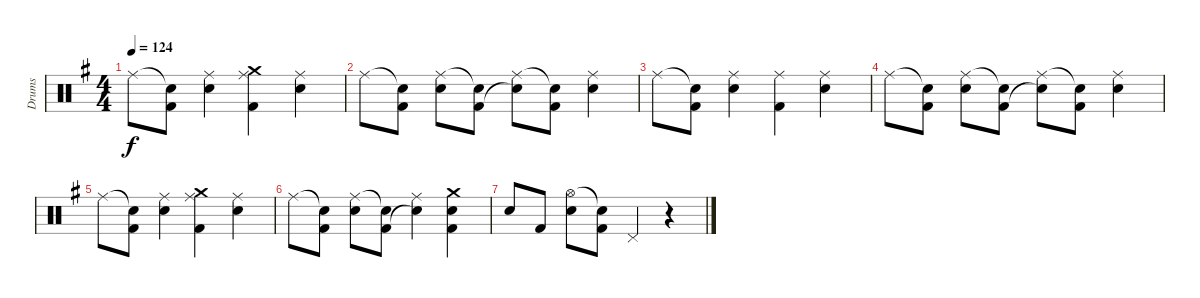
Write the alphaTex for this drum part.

\track ("Drums" "Drums") {instrument percussion}
\staff {score}
\articulation defaults
\ts (4 4)
\tempo 124
\clef neutral
\ks g "Ride (middle)".8{dy f}
("Snare (hit)"{t} "Kick (hit) 2").8 ("Ride (middle)" "Snare (hit) 2").4 ("Ride (middle)" "Crash medium (hit)" "Kick (hit) 2").4 ("Ride (middle)" "Snare (hit) 2").4 |
"Ride (middle)".8 ("Snare (hit)"{t} "Kick (hit) 2").8 ("Ride (middle)" "Snare (hit) 2").8 ("Snare (hit)"{t} "Kick (hit) 2").8 ("Ride (middle)" "Snare (hit)"{t}).8 ("Snare (hit)"{t} "Kick (hit) 2").8 ("Ride (middle)" "Snare (hit) 2").4 |
"Ride (middle)".8 ("Snare (hit)"{t} "Kick (hit) 2").8 ("Ride (middle)" "Snare (hit) 2").4 ("Ride (middle)" "Kick (hit) 2").4 ("Ride (middle)" "Snare (hit) 2").4 |
"Ride (middle)".8 ("Snare (hit)"{t} "Kick (hit) 2").8 ("Ride (middle)" "Snare (hit) 2").8 ("Snare (hit)"{t} "Kick (hit) 2").8 ("Ride (middle)" "Snare (hit)"{t}).8 ("Snare (hit)"{t} "Kick (hit) 2").8 ("Ride (middle)" "Snare (hit) 2").4 |
"Ride (middle)".8 ("Snare (hit)"{t} "Kick (hit) 2").8 ("Ride (middle)" "Snare (hit) 2").4 ("Ride (middle)" "Crash medium (hit)" "Kick (hit) 2").4 ("Ride (middle)" "Snare (hit) 2").4 |
"Ride (middle)".8 ("Snare (hit)"{t} "Kick (hit) 2").8 ("Ride (middle)" "Snare (hit) 2").8 ("Snare (hit)"{t} "Kick (hit) 2").8 ("Ride (middle)" "Snare (hit)"{t}).4 ("Crash medium (hit)" "Kick (hit) 2" "Snare (hit) 2").4 |
"Snare (hit) 2".8 "Kick (hit) 2".8 ("Hi-Hat (open)" "Snare (hit) 2").8 ("Snare (hit)"{t} "Kick (hit) 2").8 "Pedal Hi-Hat (hit)".4 r.4
